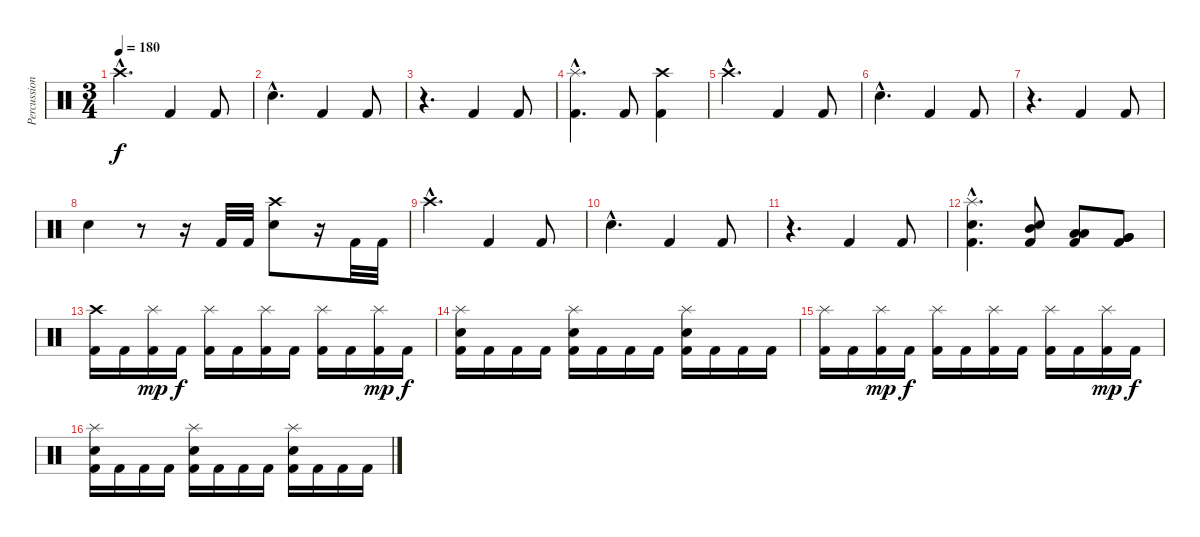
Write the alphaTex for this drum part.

\track ("Percussion" "Percussion") {instrument percussion}
\staff {score}
\articulation defaults
\ts (3 4)
\tempo 180
\clef neutral
\ks c "Crash high (hit)"{hac}.4{d dy f} "Kick (hit) 2".4 "Kick (hit) 2".8
|
"Snare (hit) 2"{hac}.4{d} "Kick (hit) 2".4 "Kick (hit) 2".8 |
r.4{d} "Kick (hit) 2".4 "Kick (hit) 2".8 |
("Kick (hit) 2"{hac} "Splash (hit)"{hac}).4{d} "Kick (hit) 2".8 ("Crash high (hit)" "Kick (hit) 2").4 |
"Crash high (hit)"{hac}.4{d} "Kick (hit) 2".4 "Kick (hit) 2".8 |
"Snare (hit) 2"{hac}.4{d} "Kick (hit) 2".4 "Kick (hit) 2".8 |
r.4{d} "Kick (hit) 2".4 "Kick (hit) 2".8 |
"Snare (hit) 2".4 r.8 r.16 "Kick (hit) 2".32 "Kick (hit) 2".32 ("Crash high (hit)" "Snare (hit) 2").8 r.16 "Kick (hit) 2".32 "Kick (hit) 2".32 |
"Crash high (hit)"{hac}.4{d} "Kick (hit) 2".4 "Kick (hit) 2".8 |
"Snare (hit) 2"{hac}.4{d} "Kick (hit) 2".4 "Kick (hit) 2".8 |
r.4{d} "Kick (hit) 2".4 "Kick (hit) 2".8 |
("Kick (hit) 2"{hac} "Snare (hit) 2"{hac} "Splash (hit)"{hac}).4{d} ("Kick (hit) 2" "Snare (hit) 2" "Mid Tom (hit)").8 ("Kick (hit) 2" "Low Tom (hit)" "Low Tom (hit)").8 ("Kick (hit) 2" "Very Low Tom (hit)" "Very Low Tom (hit)").8 |
("Crash high (hit)" "Kick (hit) 2").16 "Kick (hit) 2".16 ("Splash (hit)" "Kick (hit) 2").16{dy mp} "Kick (hit) 2".16{dy f} ("Splash (hit)" "Kick (hit) 2").16 "Kick (hit) 2".16 ("Splash (hit)" "Kick (hit) 2").16 "Kick (hit) 2".16 ("Splash (hit)" "Kick (hit) 2").16 "Kick (hit) 2".16 ("Splash (hit)" "Kick (hit) 2").16{dy mp} "Kick (hit) 2".16{dy f} |
("Splash (hit)" "Snare (hit) 2" "Kick (hit) 2").16 "Kick (hit) 2".16 "Kick (hit) 2".16 "Kick (hit) 2".16 ("Splash (hit)" "Snare (hit) 2" "Kick (hit) 2").16 "Kick (hit) 2".16 "Kick (hit) 2".16 "Kick (hit) 2".16 ("Splash (hit)" "Snare (hit) 2" "Kick (hit) 2").16 "Kick (hit) 2".16 "Kick (hit) 2".16 "Kick (hit) 2".16 |
("Splash (hit)" "Kick (hit) 2").16 "Kick (hit) 2".16 ("Splash (hit)" "Kick (hit) 2").16{dy mp} "Kick (hit) 2".16{dy f} ("Splash (hit)" "Kick (hit) 2").16 "Kick (hit) 2".16 ("Splash (hit)" "Kick (hit) 2").16 "Kick (hit) 2".16 ("Splash (hit)" "Kick (hit) 2").16 "Kick (hit) 2".16 ("Splash (hit)" "Kick (hit) 2").16{dy mp} "Kick (hit) 2".16{dy f} |
("Splash (hit)" "Snare (hit) 2" "Kick (hit) 2").16 "Kick (hit) 2".16 "Kick (hit) 2".16 "Kick (hit) 2".16 ("Splash (hit)" "Snare (hit) 2" "Kick (hit) 2").16 "Kick (hit) 2".16 "Kick (hit) 2".16 "Kick (hit) 2".16 ("Splash (hit)" "Snare (hit) 2" "Kick (hit) 2").16 "Kick (hit) 2".16 "Kick (hit) 2".16 "Kick (hit) 2".16
